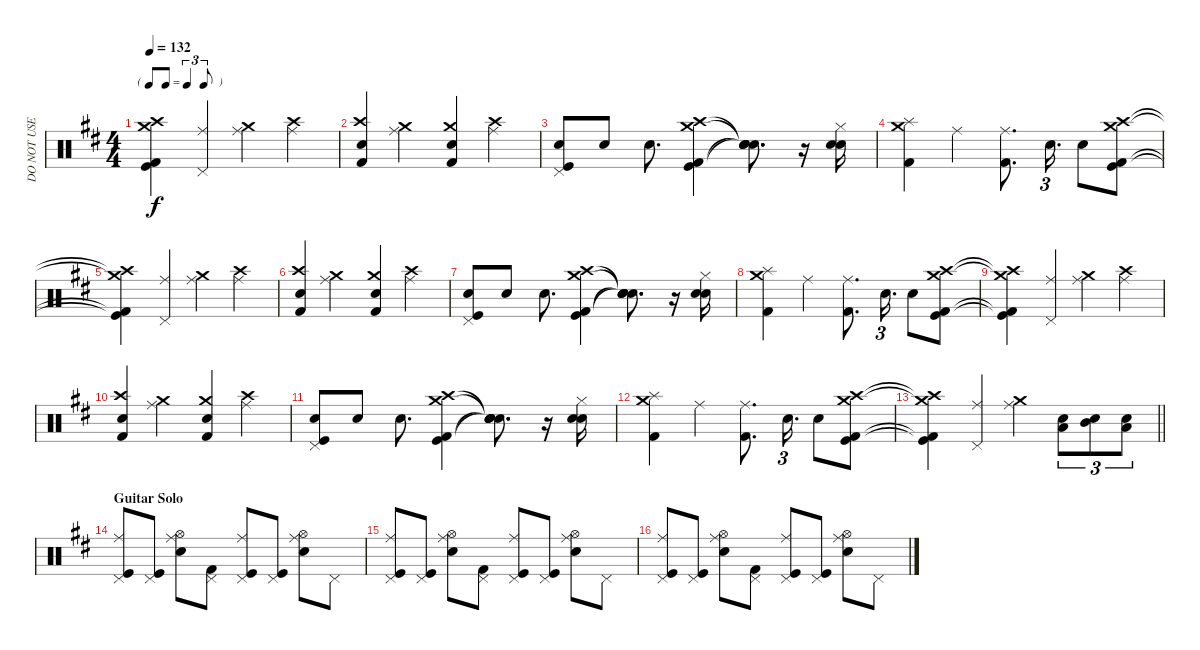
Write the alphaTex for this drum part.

\track ("DO NOT USE" "DO NOT USE") {solo instrument percussion}
\staff {score}
\articulation defaults
\ts (4 4)
\tf triplet8th
\tempo 132
\clef neutral
\ks d
("Kick (hit) 2"{t} "Kick (hit)"{t} "Crash high (hit)"{t} "Crash medium (hit)"{t}).4{dy f} ("Ride (middle)" "Pedal Hi-Hat (hit)").4 ("Ride (middle)" "Crash medium (hit)").4 ("Ride (middle)" "Crash high (hit)").4 |
("Electric Snare (hit)" "Kick (hit) 2" "Crash high (hit)").4 ("Ride (middle)" "Crash medium (hit)").4 ("Snare (hit) 2" "Kick (hit) 2" "Crash medium (hit)").4 ("Ride (middle)" "Crash high (hit)").4 |
("Kick (hit)" "Snare (hit) 2" "Pedal Hi-Hat (hit)").8 "Electric Snare (hit)".8 "Snare (hit) 2".8{d} ("Kick (hit) 2" "Kick (hit)" "Crash high (hit)" "Crash medium (hit)").4 ("Snare (hit)"{t} "Snare (hit)"{t} "Snare (hit)"{t} "Snare (hit)"{t}).8{d} r.16 ("Hi-Hat (closed)" "Snare (hit) 2" "Electric Snare (hit)").16 |
("Splash (hit)" "Kick (hit) 2" "Crash medium (hit)").4 "Ride (middle)".4 ("Ride (middle)" "Kick (hit) 2").8{d} "Electric Snare (hit)".16{d tu (3 2)} "Snare (hit) 2".8 ("Kick (hit) 2" "Kick (hit)" "Crash high (hit)" "Crash medium (hit)").8 |
("Kick (hit) 2"{t} "Kick (hit)"{t} "Crash high (hit)"{t} "Crash medium (hit)"{t}).4 ("Ride (middle)" "Pedal Hi-Hat (hit)").4 ("Ride (middle)" "Crash medium (hit)").4 ("Ride (middle)" "Crash high (hit)").4 |
("Electric Snare (hit)" "Kick (hit) 2" "Crash high (hit)").4 ("Ride (middle)" "Crash medium (hit)").4 ("Snare (hit) 2" "Kick (hit) 2" "Crash medium (hit)").4 ("Ride (middle)" "Crash high (hit)").4 |
("Kick (hit)" "Snare (hit) 2" "Pedal Hi-Hat (hit)").8 "Electric Snare (hit)".8 "Snare (hit) 2".8{d} ("Kick (hit) 2" "Kick (hit)" "Crash high (hit)" "Crash medium (hit)").4 ("Snare (hit)"{t} "Snare (hit)"{t} "Snare (hit)"{t} "Snare (hit)"{t}).8{d} r.16 ("Hi-Hat (closed)" "Snare (hit) 2" "Electric Snare (hit)").16 |
("Splash (hit)" "Kick (hit) 2" "Crash medium (hit)").4 "Ride (middle)".4 ("Ride (middle)" "Kick (hit) 2").8{d} "Electric Snare (hit)".16{d tu (3 2)} "Snare (hit) 2".8 ("Kick (hit) 2" "Kick (hit)" "Crash high (hit)" "Crash medium (hit)").8 |
("Kick (hit) 2"{t} "Kick (hit)"{t} "Crash high (hit)"{t} "Crash medium (hit)"{t}).4 ("Ride (middle)" "Pedal Hi-Hat (hit)").4 ("Ride (middle)" "Crash medium (hit)").4 ("Ride (middle)" "Crash high (hit)").4 |
("Electric Snare (hit)" "Kick (hit) 2" "Crash high (hit)").4 ("Ride (middle)" "Crash medium (hit)").4 ("Snare (hit) 2" "Kick (hit) 2" "Crash medium (hit)").4 ("Ride (middle)" "Crash high (hit)").4 |
("Kick (hit)" "Snare (hit) 2" "Pedal Hi-Hat (hit)").8 "Electric Snare (hit)".8 "Snare (hit) 2".8{d} ("Kick (hit) 2" "Kick (hit)" "Crash high (hit)" "Crash medium (hit)").4 ("Snare (hit)"{t} "Snare (hit)"{t} "Snare (hit)"{t} "Snare (hit)"{t}).8{d} r.16 ("Hi-Hat (closed)" "Snare (hit) 2" "Electric Snare (hit)").16 |
("Splash (hit)" "Kick (hit) 2" "Crash medium (hit)").4 "Ride (middle)".4 ("Ride (middle)" "Kick (hit) 2").8{d} "Electric Snare (hit)".16{d tu (3 2)} "Snare (hit) 2".8 ("Kick (hit) 2" "Kick (hit)" "Crash high (hit)" "Crash medium (hit)").8 |
\barLineRight lightlight
("Kick (hit) 2"{t} "Kick (hit)"{t} "Crash high (hit)"{t} "Crash medium (hit)"{t}).4 ("Ride (middle)" "Pedal Hi-Hat (hit)").4 ("Ride (middle)" "Crash medium (hit)").4 ("Snare (hit) 2" "Low Tom (hit)").8{tu (3 2)} ("Electric Snare (hit)" "Mid Tom (hit)").8{tu (3 2)} ("Snare (hit) 2" "Low Tom (hit)").8{tu (3 2)} |
\section ("" "Guitar Solo")
("Ride (middle)" "Kick (hit)" "Pedal Hi-Hat (hit)").8 ("Kick (hit)" "Pedal Hi-Hat (hit)").8 ("Ride (middle)" "Snare (hit) 2" "Hi-Hat (open)").8 ("Kick (hit) 2" "Pedal Hi-Hat (hit)").8 ("Ride (middle)" "Kick (hit)" "Pedal Hi-Hat (hit)").8 ("Kick (hit)" "Pedal Hi-Hat (hit)").8 ("Ride (middle)" "Electric Snare (hit)" "Hi-Hat (open)").8 "Pedal Hi-Hat (hit)".8 |
("Ride (middle)" "Kick (hit)" "Pedal Hi-Hat (hit)").8 ("Kick (hit)" "Pedal Hi-Hat (hit)").8 ("Ride (middle)" "Snare (hit) 2" "Hi-Hat (open)").8 ("Kick (hit) 2" "Pedal Hi-Hat (hit)").8 ("Ride (middle)" "Kick (hit)" "Pedal Hi-Hat (hit)").8 ("Kick (hit)" "Pedal Hi-Hat (hit)").8 ("Ride (middle)" "Electric Snare (hit)" "Hi-Hat (open)").8 "Pedal Hi-Hat (hit)".8 |
("Ride (middle)" "Kick (hit)" "Pedal Hi-Hat (hit)").8 ("Kick (hit)" "Pedal Hi-Hat (hit)").8 ("Ride (middle)" "Snare (hit) 2" "Hi-Hat (open)").8 ("Kick (hit) 2" "Pedal Hi-Hat (hit)").8 ("Ride (middle)" "Kick (hit)" "Pedal Hi-Hat (hit)").8 ("Kick (hit)" "Pedal Hi-Hat (hit)").8 ("Ride (middle)" "Electric Snare (hit)" "Hi-Hat (open)").8 "Pedal Hi-Hat (hit)".8
